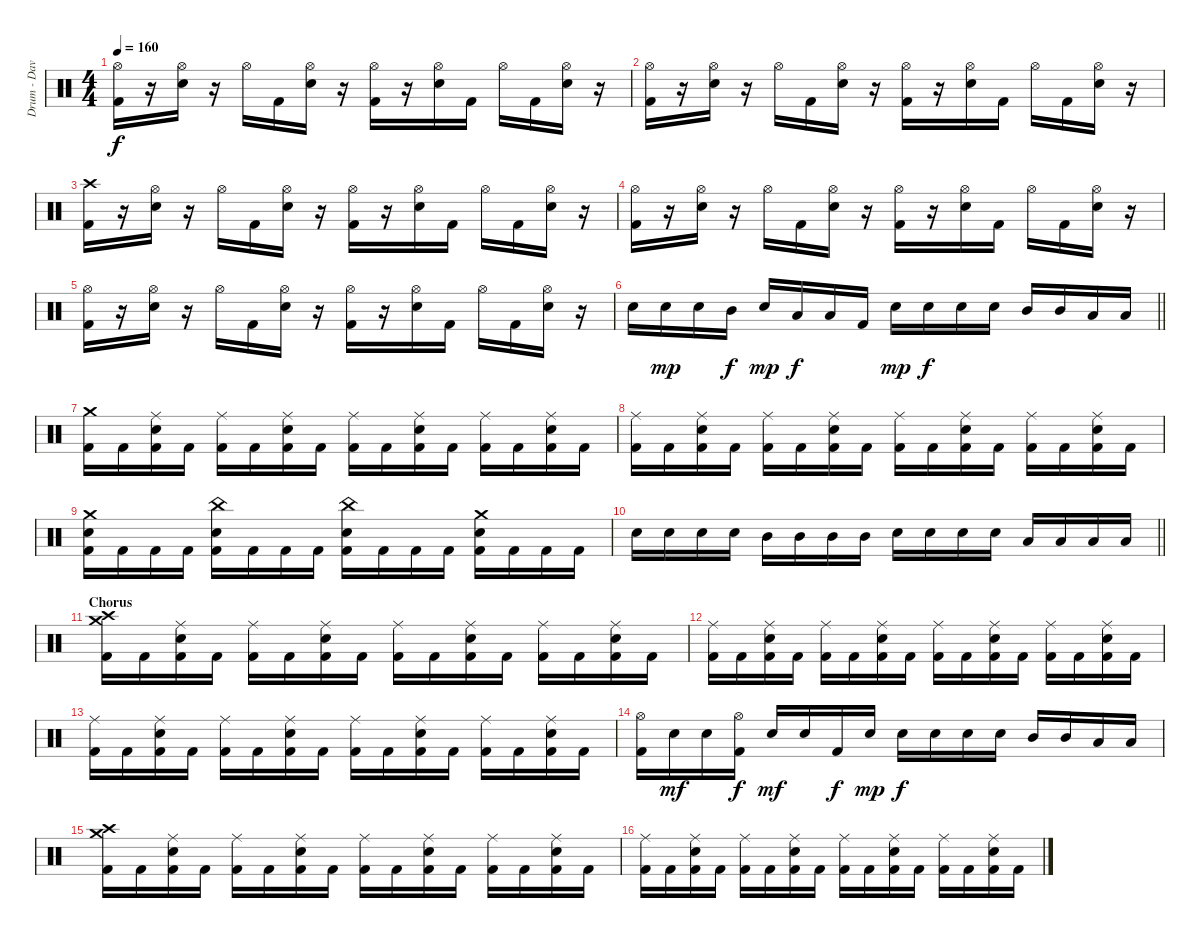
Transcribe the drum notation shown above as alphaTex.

\track ("Drum - Dave Mackintosh" "Drum - Dav") {instrument percussion}
\staff {score}
\articulation defaults
\ts (4 4)
\tempo 160
\clef neutral
\ks c
("Hi-Hat (open)" "Kick (hit) 2").16{dy f} r.16 ("Hi-Hat (open)" "Electric Snare (hit)").16 r.16 "Hi-Hat (open)".16 "Kick (hit) 2".16 ("Hi-Hat (open)" "Electric Snare (hit)").16 r.16 ("Hi-Hat (open)" "Kick (hit) 2").16 r.16 ("Hi-Hat (open)" "Electric Snare (hit)").16 "Kick (hit) 2".16 "Hi-Hat (open)".16 "Kick (hit) 2".16 ("Hi-Hat (open)" "Electric Snare (hit)").16 r.16 |
("Hi-Hat (open)" "Kick (hit) 2").16 r.16 ("Hi-Hat (open)" "Electric Snare (hit)").16 r.16 "Hi-Hat (open)".16 "Kick (hit) 2".16 ("Hi-Hat (open)" "Electric Snare (hit)").16 r.16 ("Hi-Hat (open)" "Kick (hit) 2").16 r.16 ("Hi-Hat (open)" "Electric Snare (hit)").16 "Kick (hit) 2".16 "Hi-Hat (open)".16 "Kick (hit) 2".16 ("Hi-Hat (open)" "Electric Snare (hit)").16 r.16 |
("Crash high (hit)" "Kick (hit) 2").16 r.16 ("Hi-Hat (open)" "Electric Snare (hit)").16 r.16 "Hi-Hat (open)".16 "Kick (hit) 2".16 ("Hi-Hat (open)" "Electric Snare (hit)").16 r.16 ("Hi-Hat (open)" "Kick (hit) 2").16 r.16 ("Hi-Hat (open)" "Electric Snare (hit)").16 "Kick (hit) 2".16 "Hi-Hat (open)".16 "Kick (hit) 2".16 ("Hi-Hat (open)" "Electric Snare (hit)").16 r.16 |
("Hi-Hat (open)" "Kick (hit) 2").16 r.16 ("Hi-Hat (open)" "Electric Snare (hit)").16 r.16 "Hi-Hat (open)".16 "Kick (hit) 2".16 ("Hi-Hat (open)" "Electric Snare (hit)").16 r.16 ("Hi-Hat (open)" "Kick (hit) 2").16 r.16 ("Hi-Hat (open)" "Electric Snare (hit)").16 "Kick (hit) 2".16 "Hi-Hat (open)".16 "Kick (hit) 2".16 ("Hi-Hat (open)" "Electric Snare (hit)").16 r.16 |
("Hi-Hat (open)" "Kick (hit) 2").16 r.16 ("Hi-Hat (open)" "Electric Snare (hit)").16 r.16 "Hi-Hat (open)".16 "Kick (hit) 2".16 ("Hi-Hat (open)" "Electric Snare (hit)").16 r.16 ("Hi-Hat (open)" "Kick (hit) 2").16 r.16 ("Hi-Hat (open)" "Electric Snare (hit)").16 "Kick (hit) 2".16 "Hi-Hat (open)".16 "Kick (hit) 2".16 ("Hi-Hat (open)" "Electric Snare (hit)").16 r.16 |
\barLineRight lightlight "Electric Snare (hit)".16 "Electric Snare (hit)".16{dy mp} "Electric Snare (hit)".16 "Mid Tom (hit)".16{dy f} "Electric Snare (hit)".16{dy mp} "Low Tom (hit)".16{dy f} "Low Tom (hit)".16 "Kick (hit) 2".16 "Electric Snare (hit)".16{dy mp} "Electric Snare (hit)".16{dy f} "Electric Snare (hit)".16 "Electric Snare (hit)".16 "Mid Tom (hit)".16 "Mid Tom (hit)".16 "Low Tom (hit)".16 "Low Tom (hit)".16
|
\section ("" "")
("Crash medium (hit)" "Kick (hit) 2").16 "Kick (hit) 2".16 ("Ride (middle)" "Electric Snare (hit)" "Kick (hit) 2").16 "Kick (hit) 2".16 ("Ride (middle)" "Kick (hit) 2").16 "Kick (hit) 2".16 ("Ride (middle)" "Electric Snare (hit)" "Kick (hit) 2").16 "Kick (hit) 2".16 ("Ride (middle)" "Kick (hit) 2").16 "Kick (hit) 2".16 ("Ride (middle)" "Electric Snare (hit)" "Kick (hit) 2").16 "Kick (hit) 2".16 ("Ride (middle)" "Kick (hit) 2").16 "Kick (hit) 2".16 ("Ride (middle)" "Electric Snare (hit)" "Kick (hit) 2").16 "Kick (hit) 2".16 |
("Ride (middle)" "Kick (hit) 2").16 "Kick (hit) 2".16 ("Ride (middle)" "Electric Snare (hit)" "Kick (hit) 2").16 "Kick (hit) 2".16 ("Ride (middle)" "Kick (hit) 2").16 "Kick (hit) 2".16 ("Ride (middle)" "Electric Snare (hit)" "Kick (hit) 2").16 "Kick (hit) 2".16 ("Ride (middle)" "Kick (hit) 2").16 "Kick (hit) 2".16 ("Ride (middle)" "Electric Snare (hit)" "Kick (hit) 2").16 "Kick (hit) 2".16 ("Ride (middle)" "Kick (hit) 2").16 "Kick (hit) 2".16 ("Ride (middle)" "Electric Snare (hit)" "Kick (hit) 2").16 "Kick (hit) 2".16 |
("Crash medium (hit)" "Electric Snare (hit)" "Kick (hit) 2").16 "Kick (hit) 2".16 "Kick (hit) 2".16 "Kick (hit) 2".16 ("China (hit)" "Electric Snare (hit)" "Kick (hit) 2").16 "Kick (hit) 2".16 "Kick (hit) 2".16 "Kick (hit) 2".16 ("China (hit)" "Electric Snare (hit)" "Kick (hit) 2").16 "Kick (hit) 2".16 "Kick (hit) 2".16 "Kick (hit) 2".16 ("Crash medium (hit)" "Electric Snare (hit)" "Kick (hit) 2").16 "Kick (hit) 2".16 "Kick (hit) 2".16 "Kick (hit) 2".16 |
\barLineRight lightlight "Electric Snare (hit)".16 "Electric Snare (hit)".16 "Electric Snare (hit)".16 "Electric Snare (hit)".16 "Mid Tom (hit)".16 "Mid Tom (hit)".16 "Mid Tom (hit)".16 "Mid Tom (hit)".16 "Electric Snare (hit)".16 "Electric Snare (hit)".16 "Electric Snare (hit)".16 "Electric Snare (hit)".16 "Low Tom (hit)".16 "Low Tom (hit)".16 "Low Tom (hit)".16 "Low Tom (hit)".16
|
\section ("" "Chorus")
("Crash high (hit)" "Crash medium (hit)" "Kick (hit) 2").16 "Kick (hit) 2".16 ("Ride (middle)" "Electric Snare (hit)" "Kick (hit) 2").16 "Kick (hit) 2".16 ("Ride (middle)" "Kick (hit) 2").16 "Kick (hit) 2".16 ("Ride (middle)" "Electric Snare (hit)" "Kick (hit) 2").16 "Kick (hit) 2".16 ("Ride (middle)" "Kick (hit) 2").16 "Kick (hit) 2".16 ("Ride (middle)" "Electric Snare (hit)" "Kick (hit) 2").16 "Kick (hit) 2".16 ("Ride (middle)" "Kick (hit) 2").16 "Kick (hit) 2".16 ("Ride (middle)" "Electric Snare (hit)" "Kick (hit) 2").16 "Kick (hit) 2".16 |
("Ride (middle)" "Kick (hit) 2").16 "Kick (hit) 2".16 ("Ride (middle)" "Electric Snare (hit)" "Kick (hit) 2").16 "Kick (hit) 2".16 ("Ride (middle)" "Kick (hit) 2").16 "Kick (hit) 2".16 ("Ride (middle)" "Electric Snare (hit)" "Kick (hit) 2").16 "Kick (hit) 2".16 ("Ride (middle)" "Kick (hit) 2").16 "Kick (hit) 2".16 ("Ride (middle)" "Electric Snare (hit)" "Kick (hit) 2").16 "Kick (hit) 2".16 ("Ride (middle)" "Kick (hit) 2").16 "Kick (hit) 2".16 ("Ride (middle)" "Electric Snare (hit)" "Kick (hit) 2").16 "Kick (hit) 2".16 |
("Ride (middle)" "Kick (hit) 2").16 "Kick (hit) 2".16 ("Ride (middle)" "Electric Snare (hit)" "Kick (hit) 2").16 "Kick (hit) 2".16 ("Ride (middle)" "Kick (hit) 2").16 "Kick (hit) 2".16 ("Ride (middle)" "Electric Snare (hit)" "Kick (hit) 2").16 "Kick (hit) 2".16 ("Ride (middle)" "Kick (hit) 2").16 "Kick (hit) 2".16 ("Ride (middle)" "Electric Snare (hit)" "Kick (hit) 2").16 "Kick (hit) 2".16 ("Ride (middle)" "Kick (hit) 2").16 "Kick (hit) 2".16 ("Ride (middle)" "Electric Snare (hit)" "Kick (hit) 2").16 "Kick (hit) 2".16 |
("Hi-Hat (open)" "Kick (hit) 2").16 "Electric Snare (hit)".16{dy mf} "Electric Snare (hit)".16 ("Hi-Hat (open)" "Kick (hit) 2").16{dy f} "Electric Snare (hit)".16{dy mf} "Electric Snare (hit)".16 "Kick (hit) 2".16{dy f} "Electric Snare (hit)".16{dy mp} "Electric Snare (hit)".16{dy f} "Electric Snare (hit)".16 "Electric Snare (hit)".16 "Electric Snare (hit)".16 "Mid Tom (hit)".16 "Mid Tom (hit)".16 "Low Tom (hit)".16 "Low Tom (hit)".16 |
("Crash high (hit)" "Crash medium (hit)" "Kick (hit) 2").16 "Kick (hit) 2".16 ("Ride (middle)" "Electric Snare (hit)" "Kick (hit) 2").16 "Kick (hit) 2".16 ("Ride (middle)" "Kick (hit) 2").16 "Kick (hit) 2".16 ("Ride (middle)" "Electric Snare (hit)" "Kick (hit) 2").16 "Kick (hit) 2".16 ("Ride (middle)" "Kick (hit) 2").16 "Kick (hit) 2".16 ("Ride (middle)" "Electric Snare (hit)" "Kick (hit) 2").16 "Kick (hit) 2".16 ("Ride (middle)" "Kick (hit) 2").16 "Kick (hit) 2".16 ("Ride (middle)" "Electric Snare (hit)" "Kick (hit) 2").16 "Kick (hit) 2".16 |
("Ride (middle)" "Kick (hit) 2").16 "Kick (hit) 2".16 ("Ride (middle)" "Electric Snare (hit)" "Kick (hit) 2").16 "Kick (hit) 2".16 ("Ride (middle)" "Kick (hit) 2").16 "Kick (hit) 2".16 ("Ride (middle)" "Electric Snare (hit)" "Kick (hit) 2").16 "Kick (hit) 2".16 ("Ride (middle)" "Kick (hit) 2").16 "Kick (hit) 2".16 ("Ride (middle)" "Electric Snare (hit)" "Kick (hit) 2").16 "Kick (hit) 2".16 ("Ride (middle)" "Kick (hit) 2").16 "Kick (hit) 2".16 ("Ride (middle)" "Electric Snare (hit)" "Kick (hit) 2").16 "Kick (hit) 2".16
